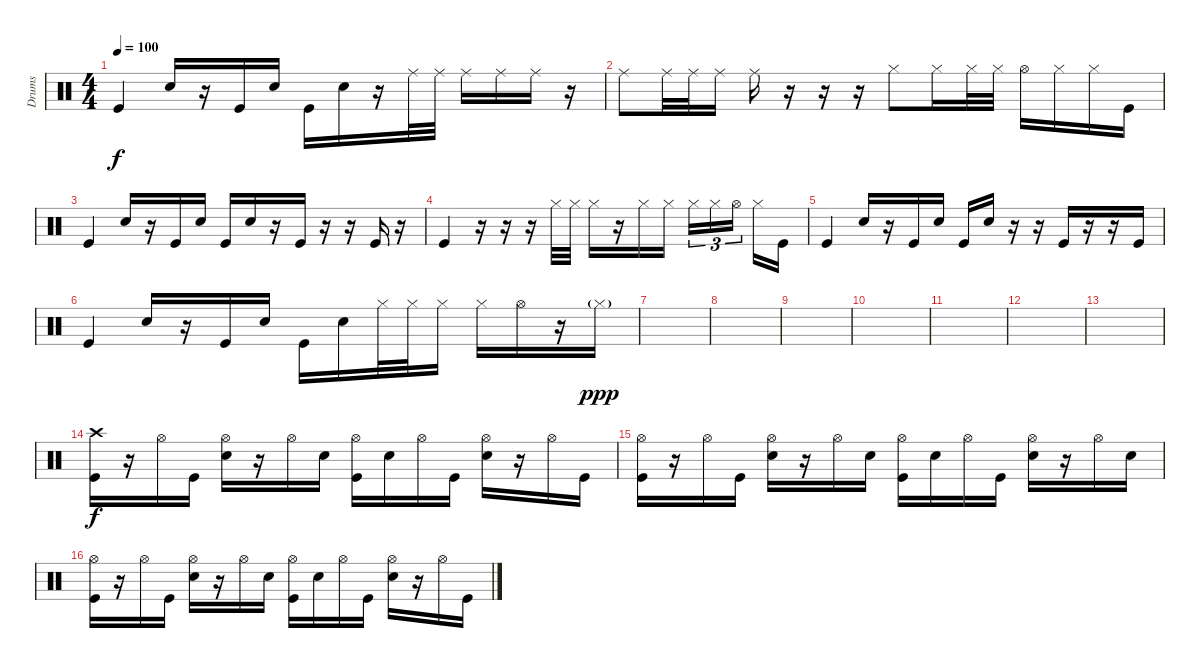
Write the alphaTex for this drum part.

\track ("Drums" "Drums") {instrument percussion}
\staff {score}
\articulation defaults
\ts (4 4)
\tempo 100
\clef neutral
\ks c "Kick (hit)".4{dy f} "Electric Snare (hit)".16
r.16 "Kick (hit)".16 "Electric Snare (hit)".16 "Kick (hit)".16 "Electric Snare (hit)".16 r.16 "Ride (middle)".32 "Ride (middle)".32 "Ride (middle)".16 "Ride (middle)".16 "Ride (middle)".16 r.16 |
"Ride (middle)".8 "Ride (middle)".32 "Ride (middle)".32 "Ride (middle)".16 "Ride (middle)".16 r.16 r.16 r.16 "Hi-Hat (closed)".8 "Hi-Hat (closed)".16 "Hi-Hat (closed)".32 "Hi-Hat (closed)".32 "Hi-Hat (open)".16 "Hi-Hat (closed)".16 "Hi-Hat (closed)".16 "Kick (hit)".16 |
"Kick (hit)".4 "Electric Snare (hit)".16 r.16 "Kick (hit)".16 "Electric Snare (hit)".16 "Kick (hit)".16 "Electric Snare (hit)".16 r.16 "Kick (hit)".16 r.16 r.16 "Kick (hit)".16 r.16 |
"Kick (hit)".4 r.16 r.16 r.16 "Hi-Hat (closed)".32 "Hi-Hat (closed)".32 "Hi-Hat (closed)".16 r.16 "Hi-Hat (closed)".16 "Hi-Hat (closed)".16 "Hi-Hat (closed)".16{tu (3 2)} "Hi-Hat (closed)".16{tu (3 2)} "Hi-Hat (open)".16{tu (3 2)} "Hi-Hat (closed)".16 "Kick (hit)".16 |
"Kick (hit)".4 "Electric Snare (hit)".16 r.16 "Kick (hit)".16 "Electric Snare (hit)".16 "Kick (hit)".16 "Electric Snare (hit)".16 r.16 r.16 "Kick (hit)".16 r.16 r.16 "Kick (hit)".16 |
"Kick (hit)".4 "Electric Snare (hit)".16 r.16 "Kick (hit)".16 "Electric Snare (hit)".16 "Kick (hit)".16 "Electric Snare (hit)".16 "Hi-Hat (closed)".32 "Hi-Hat (closed)".32 "Hi-Hat (closed)".16 "Hi-Hat (closed)".16 "Hi-Hat (open)".16 r.16 "Hi-Hat (closed)"{g}.16{dy ppp} |
|
|
|
|
|
|
|
("Crash high (hit)" "Kick (hit)").16{dy f} r.16 "Hi-Hat (open)".16 "Kick (hit)".16 ("Hi-Hat (open)" "Electric Snare (hit)").16 r.16 "Hi-Hat (open)".16 "Electric Snare (hit)".16 ("Hi-Hat (open)" "Kick (hit)").16 "Electric Snare (hit)".16 "Hi-Hat (open)".16 "Kick (hit)".16 ("Hi-Hat (open)" "Electric Snare (hit)").16 r.16 "Hi-Hat (open)".16 "Kick (hit)".16 |
("Hi-Hat (open)" "Kick (hit)").16 r.16 "Hi-Hat (open)".16 "Kick (hit)".16 ("Hi-Hat (open)" "Electric Snare (hit)").16 r.16 "Hi-Hat (open)".16 "Electric Snare (hit)".16 ("Hi-Hat (open)" "Kick (hit)").16 "Electric Snare (hit)".16 "Hi-Hat (open)".16 "Kick (hit)".16 ("Hi-Hat (open)" "Electric Snare (hit)").16 r.16 "Hi-Hat (open)".16 "Electric Snare (hit)".16 |
("Hi-Hat (open)" "Kick (hit)").16 r.16 "Hi-Hat (open)".16 "Kick (hit)".16 ("Hi-Hat (open)" "Electric Snare (hit)").16 r.16 "Hi-Hat (open)".16 "Electric Snare (hit)".16 ("Hi-Hat (open)" "Kick (hit)").16 "Electric Snare (hit)".16 "Hi-Hat (open)".16 "Kick (hit)".16 ("Hi-Hat (open)" "Electric Snare (hit)").16 r.16 "Hi-Hat (open)".16 "Kick (hit)".16
